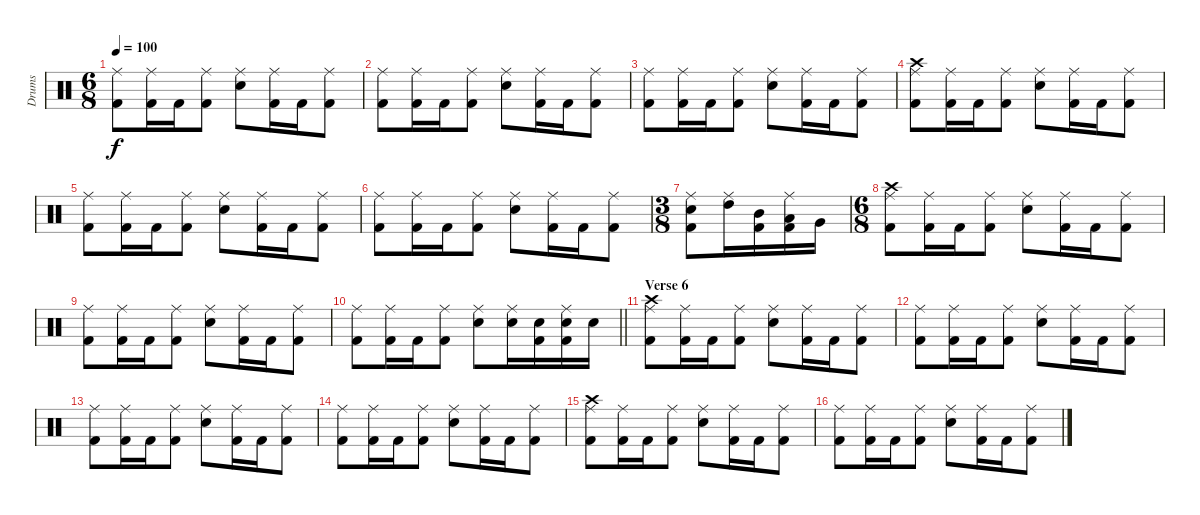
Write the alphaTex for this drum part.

\track ("Drums" "Drums") {instrument percussion}
\staff {score}
\articulation defaults
\ts (6 8)
\tempo 100
\clef neutral
\ks c
("Ride (middle)" "Kick (hit) 2").8{dy f} ("Ride (middle)" "Kick (hit) 2").16 "Kick (hit) 2".16 ("Ride (middle)" "Kick (hit) 2").8 ("Ride (middle)" "Snare (hit) 2").8 ("Ride (middle)" "Kick (hit) 2").16 "Kick (hit) 2".16 ("Ride (middle)" "Kick (hit) 2").8 |
("Ride (middle)" "Kick (hit) 2").8 ("Ride (middle)" "Kick (hit) 2").16 "Kick (hit) 2".16 ("Ride (middle)" "Kick (hit) 2").8 ("Ride (middle)" "Snare (hit) 2").8 ("Ride (middle)" "Kick (hit) 2").16 "Kick (hit) 2".16 ("Ride (middle)" "Kick (hit) 2").8 |
("Ride (middle)" "Kick (hit) 2").8 ("Ride (middle)" "Kick (hit) 2").16 "Kick (hit) 2".16 ("Ride (middle)" "Kick (hit) 2").8 ("Ride (middle)" "Snare (hit) 2").8 ("Ride (middle)" "Kick (hit) 2").16 "Kick (hit) 2".16 ("Ride (middle)" "Kick (hit) 2").8 |
("Crash high (hit)" "Ride (middle)" "Kick (hit) 2").8 ("Ride (middle)" "Kick (hit) 2").16 "Kick (hit) 2".16 ("Ride (middle)" "Kick (hit) 2").8 ("Ride (middle)" "Snare (hit) 2").8 ("Ride (middle)" "Kick (hit) 2").16 "Kick (hit) 2".16 ("Ride (middle)" "Kick (hit) 2").8 |
("Ride (middle)" "Kick (hit) 2").8 ("Ride (middle)" "Kick (hit) 2").16 "Kick (hit) 2".16 ("Ride (middle)" "Kick (hit) 2").8 ("Ride (middle)" "Snare (hit) 2").8 ("Ride (middle)" "Kick (hit) 2").16 "Kick (hit) 2".16 ("Ride (middle)" "Kick (hit) 2").8 |
("Ride (middle)" "Kick (hit) 2").8 ("Ride (middle)" "Kick (hit) 2").16 "Kick (hit) 2".16 ("Ride (middle)" "Kick (hit) 2").8 ("Ride (middle)" "Snare (hit) 2").8 ("Ride (middle)" "Kick (hit) 2").16 "Kick (hit) 2".16 ("Ride (middle)" "Kick (hit) 2").8 |
\ts (3 8)
("Ride (middle)" "Snare (hit) 2" "Kick (hit) 2").8 ("Ride (middle)" "High Tom (hit)").16 ("Mid Tom (hit)" "Kick (hit) 2").16 ("Ride (middle)" "Low Tom (hit)" "Kick (hit) 2").16 "Very Low Tom (hit)".16 |
\ts (6 8)
("Crash high (hit)" "Ride (middle)" "Kick (hit) 2").8 ("Ride (middle)" "Kick (hit) 2").16 "Kick (hit) 2".16 ("Ride (middle)" "Kick (hit) 2").8 ("Ride (middle)" "Snare (hit) 2").8 ("Ride (middle)" "Kick (hit) 2").16 "Kick (hit) 2".16 ("Ride (middle)" "Kick (hit) 2").8 |
("Ride (middle)" "Kick (hit) 2").8 ("Ride (middle)" "Kick (hit) 2").16 "Kick (hit) 2".16 ("Ride (middle)" "Kick (hit) 2").8 ("Ride (middle)" "Snare (hit) 2").8 ("Ride (middle)" "Kick (hit) 2").16 "Kick (hit) 2".16 ("Ride (middle)" "Kick (hit) 2").8 |
\barLineRight lightlight
("Ride (middle)" "Kick (hit) 2").8 ("Ride (middle)" "Kick (hit) 2").16 "Kick (hit) 2".16 ("Ride (middle)" "Kick (hit) 2").8 ("Ride (middle)" "Snare (hit) 2").8 ("Ride (middle)" "Snare (hit) 2").16 ("Snare (hit) 2" "Kick (hit) 2").16 ("Ride (middle)" "Snare (hit) 2" "Kick (hit) 2").16 "Snare (hit) 2".16 |
\section ("" "Verse 6")
("Crash high (hit)" "Ride (middle)" "Kick (hit) 2").8 ("Ride (middle)" "Kick (hit) 2").16 "Kick (hit) 2".16 ("Ride (middle)" "Kick (hit) 2").8 ("Ride (middle)" "Snare (hit) 2").8 ("Ride (middle)" "Kick (hit) 2").16 "Kick (hit) 2".16 ("Ride (middle)" "Kick (hit) 2").8 |
("Ride (middle)" "Kick (hit) 2").8 ("Ride (middle)" "Kick (hit) 2").16 "Kick (hit) 2".16 ("Ride (middle)" "Kick (hit) 2").8 ("Ride (middle)" "Snare (hit) 2").8 ("Ride (middle)" "Kick (hit) 2").16 "Kick (hit) 2".16 ("Ride (middle)" "Kick (hit) 2").8 |
("Ride (middle)" "Kick (hit) 2").8 ("Ride (middle)" "Kick (hit) 2").16 "Kick (hit) 2".16 ("Ride (middle)" "Kick (hit) 2").8 ("Ride (middle)" "Snare (hit) 2").8 ("Ride (middle)" "Kick (hit) 2").16 "Kick (hit) 2".16 ("Ride (middle)" "Kick (hit) 2").8 |
("Ride (middle)" "Kick (hit) 2").8 ("Ride (middle)" "Kick (hit) 2").16 "Kick (hit) 2".16 ("Ride (middle)" "Kick (hit) 2").8 ("Ride (middle)" "Snare (hit) 2").8 ("Ride (middle)" "Kick (hit) 2").16 "Kick (hit) 2".16 ("Ride (middle)" "Kick (hit) 2").8 |
("Crash high (hit)" "Ride (middle)" "Kick (hit) 2").8 ("Ride (middle)" "Kick (hit) 2").16 "Kick (hit) 2".16 ("Ride (middle)" "Kick (hit) 2").8 ("Ride (middle)" "Snare (hit) 2").8 ("Ride (middle)" "Kick (hit) 2").16 "Kick (hit) 2".16 ("Ride (middle)" "Kick (hit) 2").8 |
("Ride (middle)" "Kick (hit) 2").8 ("Ride (middle)" "Kick (hit) 2").16 "Kick (hit) 2".16 ("Ride (middle)" "Kick (hit) 2").8 ("Ride (middle)" "Snare (hit) 2").8 ("Ride (middle)" "Kick (hit) 2").16 "Kick (hit) 2".16 ("Ride (middle)" "Kick (hit) 2").8
